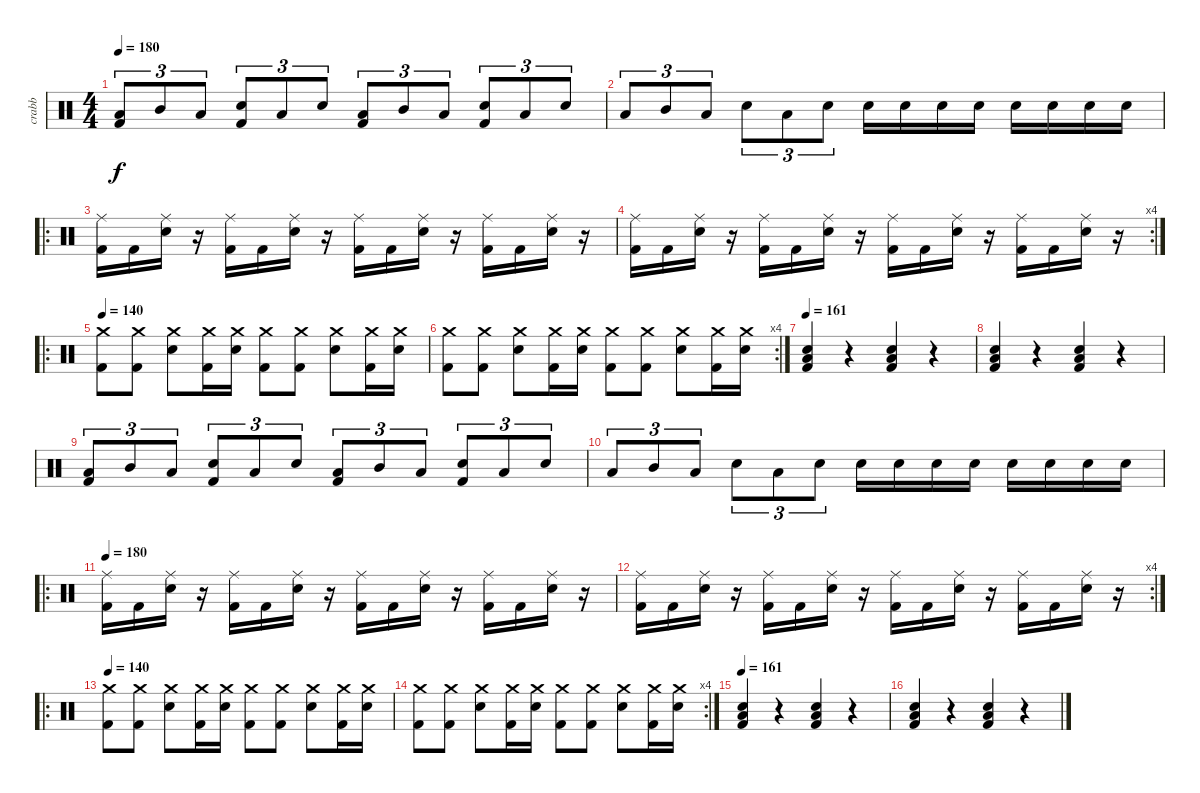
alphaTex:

\track ("crabb" "crabb") {instrument percussion}
\staff {score}
\articulation defaults
\ts (4 4)
\tempo 180
\clef neutral
\ks c
("Kick (hit) 2" "Low Floor Tom (hit)").8{tu (3 2) dy f} "Mid Tom (hit)".8{tu (3 2)} "Low Floor Tom (hit)".8{tu (3 2)} ("Kick (hit) 2" "Electric Snare (hit)").8{tu (3 2)} "Low Floor Tom (hit)".8{tu (3 2)} "Electric Snare (hit)".8{tu (3 2)} ("Kick (hit) 2" "Low Floor Tom (hit)").8{tu (3 2)} "Mid Tom (hit)".8{tu (3 2)} "Low Floor Tom (hit)".8{tu (3 2)} ("Kick (hit) 2" "Electric Snare (hit)").8{tu (3 2)} "Low Floor Tom (hit)".8{tu (3 2)} "Electric Snare (hit)".8{tu (3 2)} |
"Low Floor Tom (hit)".8{tu (3 2)} "Mid Tom (hit)".8{tu (3 2)} "Low Floor Tom (hit)".8{tu (3 2)} "Electric Snare (hit)".8{tu (3 2)} "Low Floor Tom (hit)".8{tu (3 2)} "Electric Snare (hit)".8{tu (3 2)} "Electric Snare (hit)".16 "Electric Snare (hit)".16 "Electric Snare (hit)".16 "Electric Snare (hit)".16 "Electric Snare (hit)".16 "Electric Snare (hit)".16 "Electric Snare (hit)".16 "Electric Snare (hit)".16 |
\ro
("Ride (middle)" "Kick (hit) 2").16 "Kick (hit) 2".16 ("Ride (middle)" "Electric Snare (hit)").16 r.16 ("Ride (middle)" "Kick (hit) 2").16 "Kick (hit) 2".16 ("Ride (middle)" "Electric Snare (hit)").16 r.16 ("Ride (middle)" "Kick (hit) 2").16 "Kick (hit) 2".16 ("Ride (middle)" "Electric Snare (hit)").16 r.16 ("Ride (middle)" "Kick (hit) 2").16 "Kick (hit) 2".16 ("Ride (middle)" "Electric Snare (hit)").16 r.16 |
\rc 4
("Ride (middle)" "Kick (hit) 2").16 "Kick (hit) 2".16 ("Ride (middle)" "Electric Snare (hit)").16 r.16 ("Ride (middle)" "Kick (hit) 2").16 "Kick (hit) 2".16 ("Ride (middle)" "Electric Snare (hit)").16 r.16 ("Ride (middle)" "Kick (hit) 2").16 "Kick (hit) 2".16 ("Ride (middle)" "Electric Snare (hit)").16 r.16 ("Ride (middle)" "Kick (hit) 2").16 "Kick (hit) 2".16 ("Ride (middle)" "Electric Snare (hit)").16 r.16 |
\ro
\tempo 140
("Crash medium (hit)" "Kick (hit) 2").8 ("Crash medium (hit)" "Kick (hit) 2").8 ("Crash medium (hit)" "Electric Snare (hit)").8 ("Crash medium (hit)" "Kick (hit) 2").16 ("Crash medium (hit)" "Electric Snare (hit)").16 ("Crash medium (hit)" "Kick (hit) 2").8 ("Crash medium (hit)" "Kick (hit) 2").8 ("Crash medium (hit)" "Electric Snare (hit)").8 ("Crash medium (hit)" "Kick (hit) 2").16 ("Crash medium (hit)" "Electric Snare (hit)").16 |
\rc 4
("Crash medium (hit)" "Kick (hit) 2").8 ("Crash medium (hit)" "Kick (hit) 2").8 ("Crash medium (hit)" "Electric Snare (hit)").8 ("Crash medium (hit)" "Kick (hit) 2").16 ("Crash medium (hit)" "Electric Snare (hit)").16 ("Crash medium (hit)" "Kick (hit) 2").8 ("Crash medium (hit)" "Kick (hit) 2").8 ("Crash medium (hit)" "Electric Snare (hit)").8 ("Crash medium (hit)" "Kick (hit) 2").16 ("Crash medium (hit)" "Electric Snare (hit)").16 |
\tempo 161
("Electric Snare (hit)" "Kick (hit) 2" "Low Floor Tom (hit)").4 r.4 ("Electric Snare (hit)" "Kick (hit) 2" "Low Floor Tom (hit)").4 r.4 |
("Electric Snare (hit)" "Kick (hit) 2" "Low Floor Tom (hit)").4 r.4 ("Electric Snare (hit)" "Kick (hit) 2" "Low Floor Tom (hit)").4 r.4 |
("Kick (hit) 2" "Low Floor Tom (hit)").8{tu (3 2)} "Mid Tom (hit)".8{tu (3 2)} "Low Floor Tom (hit)".8{tu (3 2)} ("Kick (hit) 2" "Electric Snare (hit)").8{tu (3 2)} "Low Floor Tom (hit)".8{tu (3 2)} "Electric Snare (hit)".8{tu (3 2)} ("Kick (hit) 2" "Low Floor Tom (hit)").8{tu (3 2)} "Mid Tom (hit)".8{tu (3 2)} "Low Floor Tom (hit)".8{tu (3 2)} ("Kick (hit) 2" "Electric Snare (hit)").8{tu (3 2)} "Low Floor Tom (hit)".8{tu (3 2)} "Electric Snare (hit)".8{tu (3 2)} |
"Low Floor Tom (hit)".8{tu (3 2)} "Mid Tom (hit)".8{tu (3 2)} "Low Floor Tom (hit)".8{tu (3 2)} "Electric Snare (hit)".8{tu (3 2)} "Low Floor Tom (hit)".8{tu (3 2)} "Electric Snare (hit)".8{tu (3 2)} "Electric Snare (hit)".16 "Electric Snare (hit)".16 "Electric Snare (hit)".16 "Electric Snare (hit)".16 "Electric Snare (hit)".16 "Electric Snare (hit)".16 "Electric Snare (hit)".16 "Electric Snare (hit)".16 |
\ro
\tempo 180
("Ride (middle)" "Kick (hit) 2").16 "Kick (hit) 2".16 ("Ride (middle)" "Electric Snare (hit)").16 r.16 ("Ride (middle)" "Kick (hit) 2").16 "Kick (hit) 2".16 ("Ride (middle)" "Electric Snare (hit)").16 r.16 ("Ride (middle)" "Kick (hit) 2").16 "Kick (hit) 2".16 ("Ride (middle)" "Electric Snare (hit)").16 r.16 ("Ride (middle)" "Kick (hit) 2").16 "Kick (hit) 2".16 ("Ride (middle)" "Electric Snare (hit)").16 r.16 |
\rc 4
("Ride (middle)" "Kick (hit) 2").16 "Kick (hit) 2".16 ("Ride (middle)" "Electric Snare (hit)").16 r.16 ("Ride (middle)" "Kick (hit) 2").16 "Kick (hit) 2".16 ("Ride (middle)" "Electric Snare (hit)").16 r.16 ("Ride (middle)" "Kick (hit) 2").16 "Kick (hit) 2".16 ("Ride (middle)" "Electric Snare (hit)").16 r.16 ("Ride (middle)" "Kick (hit) 2").16 "Kick (hit) 2".16 ("Ride (middle)" "Electric Snare (hit)").16 r.16 |
\ro
\tempo 140
("Crash medium (hit)" "Kick (hit) 2").8 ("Crash medium (hit)" "Kick (hit) 2").8 ("Crash medium (hit)" "Electric Snare (hit)").8 ("Crash medium (hit)" "Kick (hit) 2").16 ("Crash medium (hit)" "Electric Snare (hit)").16 ("Crash medium (hit)" "Kick (hit) 2").8 ("Crash medium (hit)" "Kick (hit) 2").8 ("Crash medium (hit)" "Electric Snare (hit)").8 ("Crash medium (hit)" "Kick (hit) 2").16 ("Crash medium (hit)" "Electric Snare (hit)").16 |
\rc 4
("Crash medium (hit)" "Kick (hit) 2").8 ("Crash medium (hit)" "Kick (hit) 2").8 ("Crash medium (hit)" "Electric Snare (hit)").8 ("Crash medium (hit)" "Kick (hit) 2").16 ("Crash medium (hit)" "Electric Snare (hit)").16 ("Crash medium (hit)" "Kick (hit) 2").8 ("Crash medium (hit)" "Kick (hit) 2").8 ("Crash medium (hit)" "Electric Snare (hit)").8 ("Crash medium (hit)" "Kick (hit) 2").16 ("Crash medium (hit)" "Electric Snare (hit)").16 |
\tempo 161
("Electric Snare (hit)" "Kick (hit) 2" "Low Floor Tom (hit)").4 r.4 ("Electric Snare (hit)" "Kick (hit) 2" "Low Floor Tom (hit)").4 r.4 |
("Electric Snare (hit)" "Kick (hit) 2" "Low Floor Tom (hit)").4 r.4 ("Electric Snare (hit)" "Kick (hit) 2" "Low Floor Tom (hit)").4 r.4
